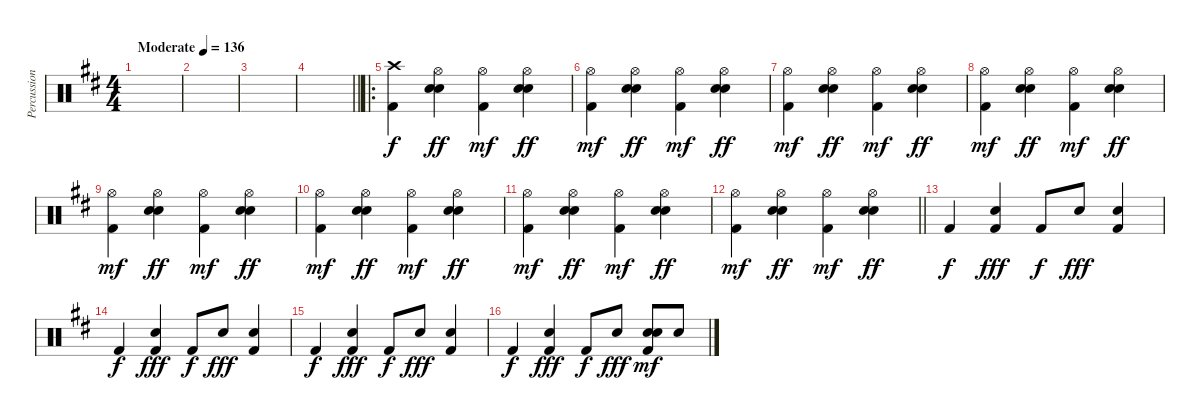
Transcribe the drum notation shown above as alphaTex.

\track ("Percussion" "Percussion") {instrument percussion}
\staff {score}
\articulation defaults
\ts (4 4)
\tempo (136 "Moderate")
\clef neutral
\ks d
|
|
|
\barLineRight lightlight
|
\ro
("Crash high (hit)" "Kick (hit) 2").4 ("Hi-Hat (open)" "Snare (hit) 2" "Hand Clap (hit)").4{dy ff} ("Hi-Hat (open)" "Kick (hit) 2").4{dy mf} ("Hi-Hat (open)" "Snare (hit) 2" "Hand Clap (hit)").4{dy ff} |
("Hi-Hat (open)" "Kick (hit) 2").4{dy mf} ("Hi-Hat (open)" "Snare (hit) 2" "Hand Clap (hit)").4{dy ff} ("Hi-Hat (open)" "Kick (hit) 2").4{dy mf} ("Hi-Hat (open)" "Snare (hit) 2" "Hand Clap (hit)").4{dy ff} |
("Hi-Hat (open)" "Kick (hit) 2").4{dy mf} ("Hi-Hat (open)" "Snare (hit) 2" "Hand Clap (hit)").4{dy ff} ("Hi-Hat (open)" "Kick (hit) 2").4{dy mf} ("Hi-Hat (open)" "Snare (hit) 2" "Hand Clap (hit)").4{dy ff} |
("Hi-Hat (open)" "Kick (hit) 2").4{dy mf} ("Hi-Hat (open)" "Snare (hit) 2" "Hand Clap (hit)").4{dy ff} ("Hi-Hat (open)" "Kick (hit) 2").4{dy mf} ("Hi-Hat (open)" "Snare (hit) 2" "Hand Clap (hit)").4{dy ff} |
("Hi-Hat (open)" "Kick (hit) 2").4{dy mf} ("Hi-Hat (open)" "Snare (hit) 2" "Hand Clap (hit)").4{dy ff} ("Hi-Hat (open)" "Kick (hit) 2").4{dy mf} ("Hi-Hat (open)" "Snare (hit) 2" "Hand Clap (hit)").4{dy ff} |
("Hi-Hat (open)" "Kick (hit) 2").4{dy mf} ("Hi-Hat (open)" "Snare (hit) 2" "Hand Clap (hit)").4{dy ff} ("Hi-Hat (open)" "Kick (hit) 2").4{dy mf} ("Hi-Hat (open)" "Snare (hit) 2" "Hand Clap (hit)").4{dy ff} |
("Hi-Hat (open)" "Kick (hit) 2").4{dy mf} ("Hi-Hat (open)" "Snare (hit) 2" "Hand Clap (hit)").4{dy ff} ("Hi-Hat (open)" "Kick (hit) 2").4{dy mf} ("Hi-Hat (open)" "Snare (hit) 2" "Hand Clap (hit)").4{dy ff} |
\barLineRight lightlight
("Hi-Hat (open)" "Kick (hit) 2").4{dy mf} ("Hi-Hat (open)" "Snare (hit) 2" "Hand Clap (hit)").4{dy ff} ("Hi-Hat (open)" "Kick (hit) 2").4{dy mf} ("Hi-Hat (open)" "Snare (hit) 2" "Hand Clap (hit)").4{dy ff} |
"Kick (hit) 2".4{dy f} ("Hand Clap (hit)" "Kick (hit) 2").4{dy fff} "Kick (hit) 2".8{dy f} "Hand Clap (hit)".8{dy fff} ("Hand Clap (hit)" "Kick (hit) 2").4 |
"Kick (hit) 2".4{dy f} ("Hand Clap (hit)" "Kick (hit) 2").4{dy fff} "Kick (hit) 2".8{dy f} "Hand Clap (hit)".8{dy fff} ("Hand Clap (hit)" "Kick (hit) 2").4 |
"Kick (hit) 2".4{dy f} ("Hand Clap (hit)" "Kick (hit) 2").4{dy fff} "Kick (hit) 2".8{dy f} "Hand Clap (hit)".8{dy fff} ("Hand Clap (hit)" "Kick (hit) 2").4 |
"Kick (hit) 2".4{dy f} ("Hand Clap (hit)" "Kick (hit) 2").4{dy fff} "Kick (hit) 2".8{dy f} "Hand Clap (hit)".8{dy fff} ("Hand Clap (hit)" "Snare (hit) 2" "Kick (hit) 2").8{dy mf} "Snare (hit) 2".8
